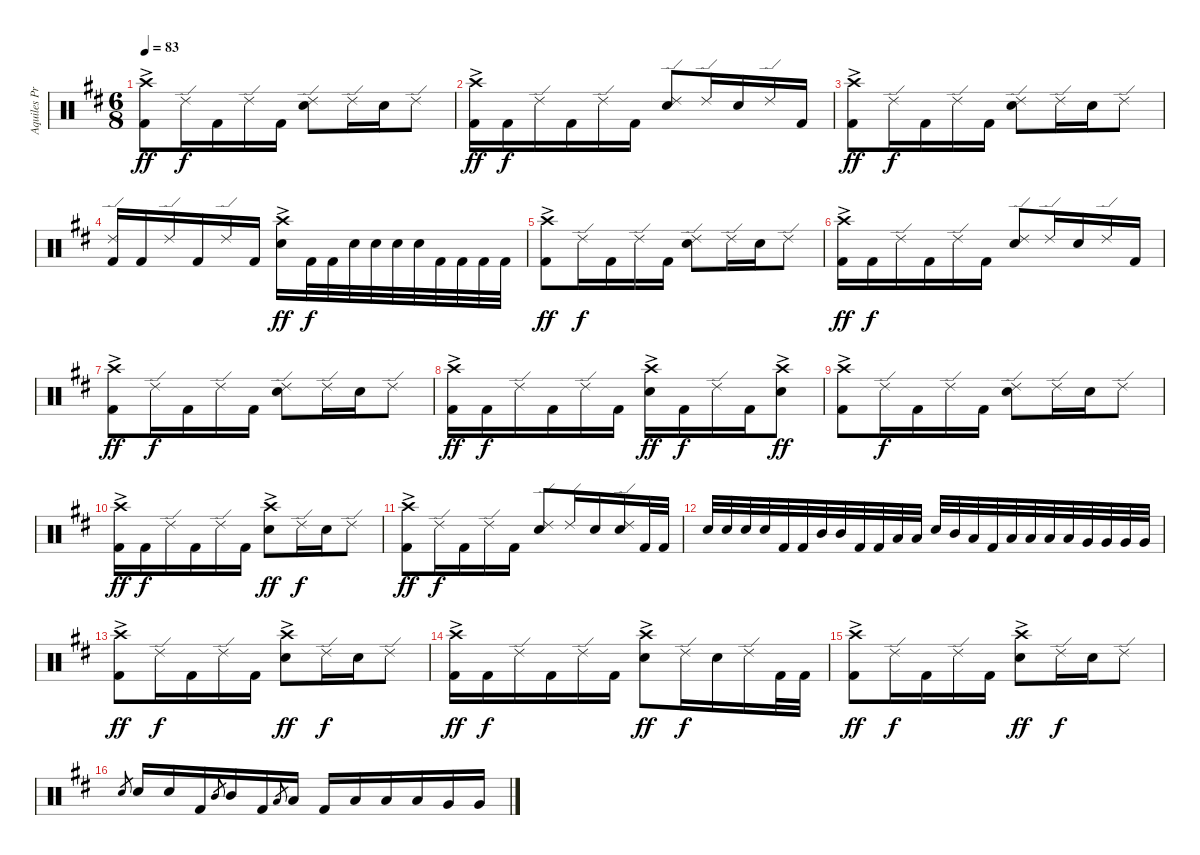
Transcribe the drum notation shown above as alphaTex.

\track ("Aquiles Priester" "Aquiles Pr") {instrument percussion}
\staff {score}
\articulation defaults
\ts (6 8)
\tempo 83
\clef neutral
\ks d
("Crash high (hit)"{ac} "Kick (hit) 2"{ac}).8{dy ff} "Ride (edge) 2".16{dy f} "Kick (hit) 2".16 "Ride (edge) 2".16 "Kick (hit) 2".16 ("Ride (edge) 2" "Electric Snare (hit)").8 "Ride (edge) 2".16 "Electric Snare (hit)".16 "Ride (edge) 2".8 |
("Crash high (hit)"{ac} "Kick (hit) 2"{ac}).16{dy ff} "Kick (hit) 2".16{dy f} "Ride (edge) 2".16 "Kick (hit) 2".16 "Ride (edge) 2".16 "Kick (hit) 2".16 ("Ride (edge) 2" "Electric Snare (hit)").8 "Ride (edge) 2".16 "Electric Snare (hit)".16 "Ride (edge) 2".16 "Kick (hit) 2".16 |
("Crash high (hit)"{ac} "Kick (hit) 2"{ac}).8{dy ff} "Ride (edge) 2".16{dy f} "Kick (hit) 2".16 "Ride (edge) 2".16 "Kick (hit) 2".16 ("Ride (edge) 2" "Electric Snare (hit)").8 "Ride (edge) 2".16 "Electric Snare (hit)".16 "Ride (edge) 2".8 |
("Ride (edge) 2" "Kick (hit) 2").16 "Kick (hit) 2".16 "Ride (edge) 2".16 "Kick (hit) 2".16 "Ride (edge) 2".16 "Kick (hit) 2".16 ("Crash high (hit)"{ac} "Electric Snare (hit)"{ac}).16{dy ff} "Kick (hit) 2".32{dy f} "Kick (hit) 2".32 "Electric Snare (hit)".32 "Electric Snare (hit)".32 "Electric Snare (hit)".32 "Electric Snare (hit)".32 "Kick (hit) 2".32 "Kick (hit) 2".32 "Kick (hit) 2".32 "Kick (hit) 2".32 |
("Crash high (hit)"{ac} "Kick (hit) 2"{ac}).8{dy ff} "Ride (edge) 2".16{dy f} "Kick (hit) 2".16 "Ride (edge) 2".16 "Kick (hit) 2".16 ("Ride (edge) 2" "Electric Snare (hit)").8 "Ride (edge) 2".16 "Electric Snare (hit)".16 "Ride (edge) 2".8 |
("Crash high (hit)"{ac} "Kick (hit) 2"{ac}).16{dy ff} "Kick (hit) 2".16{dy f} "Ride (edge) 2".16 "Kick (hit) 2".16 "Ride (edge) 2".16 "Kick (hit) 2".16 ("Ride (edge) 2" "Electric Snare (hit)").8 "Ride (edge) 2".16 "Electric Snare (hit)".16 "Ride (edge) 2".16 "Kick (hit) 2".16 |
("Crash high (hit)"{ac} "Kick (hit) 2"{ac}).8{dy ff} "Ride (edge) 2".16{dy f} "Kick (hit) 2".16 "Ride (edge) 2".16 "Kick (hit) 2".16 ("Ride (edge) 2" "Electric Snare (hit)").8 "Ride (edge) 2".16 "Electric Snare (hit)".16 "Ride (edge) 2".8 |
("Crash high (hit)"{ac} "Kick (hit) 2"{ac}).16{dy ff} "Kick (hit) 2".16{dy f} "Ride (edge) 2".16 "Kick (hit) 2".16 "Ride (edge) 2".16 "Kick (hit) 2".16 ("Crash high (hit)"{ac} "Electric Snare (hit)"{ac}).16{dy ff} "Kick (hit) 2".16{dy f} "Ride (edge) 2".16 "Kick (hit) 2".16 ("Crash high (hit)"{ac} "Electric Snare (hit)"{ac}).8{dy ff} |
("Crash high (hit)"{ac} "Kick (hit) 2"{ac}).8 "Ride (edge) 2".16{dy f} "Kick (hit) 2".16 "Ride (edge) 2".16 "Kick (hit) 2".16 ("Ride (edge) 2" "Electric Snare (hit)").8 "Ride (edge) 2".16 "Electric Snare (hit)".16 "Ride (edge) 2".8 |
("Crash high (hit)"{ac} "Kick (hit) 2"{ac}).16{dy ff} "Kick (hit) 2".16{dy f} "Ride (edge) 2".16 "Kick (hit) 2".16 "Ride (edge) 2".16 "Kick (hit) 2".16 ("Crash high (hit)"{ac} "Electric Snare (hit)"{ac}).8{dy ff} "Ride (edge) 2".16{dy f} "Electric Snare (hit)".16 "Ride (edge) 2".8 |
("Crash high (hit)"{ac} "Kick (hit) 2"{ac}).8{dy ff} "Ride (edge) 2".16{dy f} "Kick (hit) 2".16 "Ride (edge) 2".16 "Kick (hit) 2".16 ("Ride (edge) 2" "Electric Snare (hit)").8 "Ride (edge) 2".16 "Electric Snare (hit)".16 ("Ride (edge) 2" "Electric Snare (hit)").16 "Kick (hit) 2".32 "Kick (hit) 2".32 |
"Electric Snare (hit)".32 "Electric Snare (hit)".32 "Electric Snare (hit)".32 "Electric Snare (hit)".32 "Kick (hit) 2".32 "Kick (hit) 2".32 "Mid Tom (hit)".32 "Mid Tom (hit)".32 "Kick (hit) 2".32 "Kick (hit) 2".32 "Low Tom (hit)".32 "Low Tom (hit)".32 "Electric Snare (hit)".32 "Mid Tom (hit)".32 "Low Tom (hit)".32 "Kick (hit) 2".32 "Low Tom (hit)".32 "Low Tom (hit)".32 "Low Tom (hit)".32 "Low Tom (hit)".32 "Very Low Tom (hit)".32 "Very Low Tom (hit)".32 "Very Low Tom (hit)".32 "Very Low Tom (hit)".32 |
("Crash high (hit)"{ac} "Kick (hit) 2"{ac}).8{dy ff} "Ride (edge) 2".16{dy f} "Kick (hit) 2".16 "Ride (edge) 2".16 "Kick (hit) 2".16 ("Crash high (hit)"{ac} "Electric Snare (hit)"{ac}).8{dy ff} "Ride (edge) 2".16{dy f} "Electric Snare (hit)".16 "Ride (edge) 2".8 |
("Crash high (hit)"{ac} "Kick (hit) 2"{ac}).16{dy ff} "Kick (hit) 2".16{dy f} "Ride (edge) 2".16 "Kick (hit) 2".16 "Ride (edge) 2".16 "Kick (hit) 2".16 ("Crash high (hit)"{ac} "Electric Snare (hit)"{ac}).8{dy ff} "Ride (edge) 2".16{dy f} "Electric Snare (hit)".16 "Ride (edge) 2".16 "Kick (hit) 2".32 "Kick (hit) 2".32 |
("Crash high (hit)"{ac} "Kick (hit) 2"{ac}).8{dy ff} "Ride (edge) 2".16{dy f} "Kick (hit) 2".16 "Ride (edge) 2".16 "Kick (hit) 2".16 ("Crash high (hit)"{ac} "Electric Snare (hit)"{ac}).8{dy ff} "Ride (edge) 2".16{dy f} "Electric Snare (hit)".16 "Ride (edge) 2".8 |
"Electric Snare (hit)".8{gr} "Electric Snare (hit)".16 "Electric Snare (hit)".16 "Kick (hit) 2".16 "Mid Tom (hit)".8{gr} "Mid Tom (hit)".16 "Kick (hit) 2".16 "Low Tom (hit)".8{gr} "Low Tom (hit)".16 "Kick (hit) 2".16 "Low Tom (hit)".16 "Low Tom (hit)".16 "Low Tom (hit)".16 "Very Low Tom (hit)".16 "Very Low Tom (hit)".16
